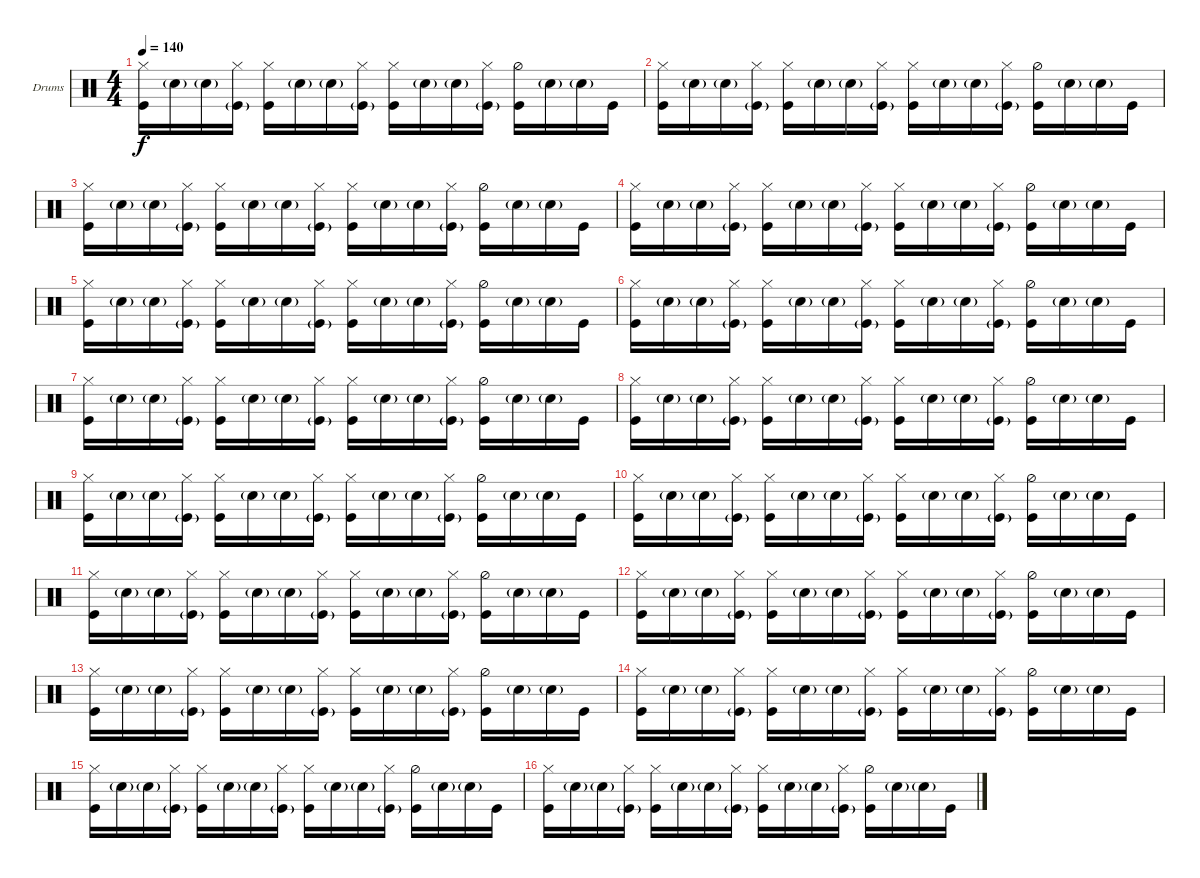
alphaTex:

\defaultSystemsLayout 4
\bracketExtendMode nobrackets
\firstSystemTrackNameOrientation horizontal
\otherSystemsTrackNameOrientation horizontal
\track ("Nazar" "Drums") {instrument percussion}
\staff {score}
\articulation defaults
\ts (4 4)
\tempo 140
\clef neutral
\scale
0.333333
\ks c
("Hi-Hat (closed)" "Kick (hit)").16{dy f} "Snare (hit) 2"{g}.16 "Snare (hit) 2"{g}.16 ("Kick (hit)"{g} "Hi-Hat (closed)").16 ("Kick (hit)" "Hi-Hat (closed)").16 "Snare (hit) 2"{g}.16 "Snare (hit) 2"{g}.16 ("Kick (hit)"{g} "Hi-Hat (closed)").16 ("Kick (hit)" "Hi-Hat (closed)").16 "Snare (hit) 2"{g}.16 "Snare (hit) 2"{g}.16 ("Kick (hit)"{g} "Hi-Hat (closed)").16 ("Kick (hit)" "Hi-Hat (half)").16 "Snare (hit) 2"{g}.16 "Snare (hit) 2"{g}.16 "Kick (hit)".16 |
\scale
0.333333 ("Hi-Hat (closed)" "Kick (hit)").16 "Snare (hit) 2"{g}.16 "Snare (hit) 2"{g}.16 ("Kick (hit)"{g} "Hi-Hat (closed)").16 ("Kick (hit)" "Hi-Hat (closed)").16 "Snare (hit) 2"{g}.16 "Snare (hit) 2"{g}.16 ("Kick (hit)"{g} "Hi-Hat (closed)").16 ("Kick (hit)" "Hi-Hat (closed)").16 "Snare (hit) 2"{g}.16 "Snare (hit) 2"{g}.16 ("Kick (hit)"{g} "Hi-Hat (closed)").16 ("Kick (hit)" "Hi-Hat (half)").16 "Snare (hit) 2"{g}.16 "Snare (hit) 2"{g}.16 "Kick (hit)".16 |
\scale
0.333333 ("Hi-Hat (closed)" "Kick (hit)").16 "Snare (hit) 2"{g}.16 "Snare (hit) 2"{g}.16 ("Kick (hit)"{g} "Hi-Hat (closed)").16 ("Kick (hit)" "Hi-Hat (closed)").16 "Snare (hit) 2"{g}.16 "Snare (hit) 2"{g}.16 ("Kick (hit)"{g} "Hi-Hat (closed)").16 ("Kick (hit)" "Hi-Hat (closed)").16 "Snare (hit) 2"{g}.16 "Snare (hit) 2"{g}.16 ("Kick (hit)"{g} "Hi-Hat (closed)").16 ("Kick (hit)" "Hi-Hat (half)").16 "Snare (hit) 2"{g}.16 "Snare (hit) 2"{g}.16 "Kick (hit)".16 |
\scale
0.333333 ("Hi-Hat (closed)" "Kick (hit)").16 "Snare (hit) 2"{g}.16 "Snare (hit) 2"{g}.16 ("Kick (hit)"{g} "Hi-Hat (closed)").16 ("Kick (hit)" "Hi-Hat (closed)").16 "Snare (hit) 2"{g}.16 "Snare (hit) 2"{g}.16 ("Kick (hit)"{g} "Hi-Hat (closed)").16 ("Kick (hit)" "Hi-Hat (closed)").16 "Snare (hit) 2"{g}.16 "Snare (hit) 2"{g}.16 ("Kick (hit)"{g} "Hi-Hat (closed)").16 ("Kick (hit)" "Hi-Hat (half)").16 "Snare (hit) 2"{g}.16 "Snare (hit) 2"{g}.16 "Kick (hit)".16 |
\scale
0.333333 ("Hi-Hat (closed)" "Kick (hit)").16 "Snare (hit) 2"{g}.16 "Snare (hit) 2"{g}.16 ("Kick (hit)"{g} "Hi-Hat (closed)").16 ("Kick (hit)" "Hi-Hat (closed)").16 "Snare (hit) 2"{g}.16 "Snare (hit) 2"{g}.16 ("Kick (hit)"{g} "Hi-Hat (closed)").16 ("Kick (hit)" "Hi-Hat (closed)").16 "Snare (hit) 2"{g}.16 "Snare (hit) 2"{g}.16 ("Kick (hit)"{g} "Hi-Hat (closed)").16 ("Kick (hit)" "Hi-Hat (half)").16 "Snare (hit) 2"{g}.16 "Snare (hit) 2"{g}.16 "Kick (hit)".16 |
\scale
0.333333 ("Hi-Hat (closed)" "Kick (hit)").16 "Snare (hit) 2"{g}.16 "Snare (hit) 2"{g}.16 ("Kick (hit)"{g} "Hi-Hat (closed)").16 ("Kick (hit)" "Hi-Hat (closed)").16 "Snare (hit) 2"{g}.16 "Snare (hit) 2"{g}.16 ("Kick (hit)"{g} "Hi-Hat (closed)").16 ("Kick (hit)" "Hi-Hat (closed)").16 "Snare (hit) 2"{g}.16 "Snare (hit) 2"{g}.16 ("Kick (hit)"{g} "Hi-Hat (closed)").16 ("Kick (hit)" "Hi-Hat (half)").16 "Snare (hit) 2"{g}.16 "Snare (hit) 2"{g}.16 "Kick (hit)".16 |
\scale
0.333333 ("Hi-Hat (closed)" "Kick (hit)").16 "Snare (hit) 2"{g}.16 "Snare (hit) 2"{g}.16 ("Kick (hit)"{g} "Hi-Hat (closed)").16 ("Kick (hit)" "Hi-Hat (closed)").16 "Snare (hit) 2"{g}.16 "Snare (hit) 2"{g}.16 ("Kick (hit)"{g} "Hi-Hat (closed)").16 ("Kick (hit)" "Hi-Hat (closed)").16 "Snare (hit) 2"{g}.16 "Snare (hit) 2"{g}.16 ("Kick (hit)"{g} "Hi-Hat (closed)").16 ("Kick (hit)" "Hi-Hat (half)").16 "Snare (hit) 2"{g}.16 "Snare (hit) 2"{g}.16 "Kick (hit)".16 |
\scale
0.333333 ("Hi-Hat (closed)" "Kick (hit)").16 "Snare (hit) 2"{g}.16 "Snare (hit) 2"{g}.16 ("Kick (hit)"{g} "Hi-Hat (closed)").16 ("Kick (hit)" "Hi-Hat (closed)").16 "Snare (hit) 2"{g}.16 "Snare (hit) 2"{g}.16 ("Kick (hit)"{g} "Hi-Hat (closed)").16 ("Kick (hit)" "Hi-Hat (closed)").16 "Snare (hit) 2"{g}.16 "Snare (hit) 2"{g}.16 ("Kick (hit)"{g} "Hi-Hat (closed)").16 ("Kick (hit)" "Hi-Hat (half)").16 "Snare (hit) 2"{g}.16 "Snare (hit) 2"{g}.16 "Kick (hit)".16 |
\scale
0.333333 ("Hi-Hat (closed)" "Kick (hit)").16 "Snare (hit) 2"{g}.16 "Snare (hit) 2"{g}.16 ("Kick (hit)"{g} "Hi-Hat (closed)").16 ("Kick (hit)" "Hi-Hat (closed)").16 "Snare (hit) 2"{g}.16 "Snare (hit) 2"{g}.16 ("Kick (hit)"{g} "Hi-Hat (closed)").16 ("Kick (hit)" "Hi-Hat (closed)").16 "Snare (hit) 2"{g}.16 "Snare (hit) 2"{g}.16 ("Kick (hit)"{g} "Hi-Hat (closed)").16 ("Kick (hit)" "Hi-Hat (half)").16 "Snare (hit) 2"{g}.16 "Snare (hit) 2"{g}.16 "Kick (hit)".16 |
\scale
0.333333 ("Hi-Hat (closed)" "Kick (hit)").16 "Snare (hit) 2"{g}.16 "Snare (hit) 2"{g}.16 ("Kick (hit)"{g} "Hi-Hat (closed)").16 ("Kick (hit)" "Hi-Hat (closed)").16 "Snare (hit) 2"{g}.16 "Snare (hit) 2"{g}.16 ("Kick (hit)"{g} "Hi-Hat (closed)").16 ("Kick (hit)" "Hi-Hat (closed)").16 "Snare (hit) 2"{g}.16 "Snare (hit) 2"{g}.16 ("Kick (hit)"{g} "Hi-Hat (closed)").16 ("Kick (hit)" "Hi-Hat (half)").16 "Snare (hit) 2"{g}.16 "Snare (hit) 2"{g}.16 "Kick (hit)".16 |
\scale
0.333333 ("Hi-Hat (closed)" "Kick (hit)").16 "Snare (hit) 2"{g}.16 "Snare (hit) 2"{g}.16 ("Kick (hit)"{g} "Hi-Hat (closed)").16 ("Kick (hit)" "Hi-Hat (closed)").16 "Snare (hit) 2"{g}.16 "Snare (hit) 2"{g}.16 ("Kick (hit)"{g} "Hi-Hat (closed)").16 ("Kick (hit)" "Hi-Hat (closed)").16 "Snare (hit) 2"{g}.16 "Snare (hit) 2"{g}.16 ("Kick (hit)"{g} "Hi-Hat (closed)").16 ("Kick (hit)" "Hi-Hat (half)").16 "Snare (hit) 2"{g}.16 "Snare (hit) 2"{g}.16 "Kick (hit)".16 |
\scale
0.333333 ("Hi-Hat (closed)" "Kick (hit)").16 "Snare (hit) 2"{g}.16 "Snare (hit) 2"{g}.16 ("Kick (hit)"{g} "Hi-Hat (closed)").16 ("Kick (hit)" "Hi-Hat (closed)").16 "Snare (hit) 2"{g}.16 "Snare (hit) 2"{g}.16 ("Kick (hit)"{g} "Hi-Hat (closed)").16 ("Kick (hit)" "Hi-Hat (closed)").16 "Snare (hit) 2"{g}.16 "Snare (hit) 2"{g}.16 ("Kick (hit)"{g} "Hi-Hat (closed)").16 ("Kick (hit)" "Hi-Hat (half)").16 "Snare (hit) 2"{g}.16 "Snare (hit) 2"{g}.16 "Kick (hit)".16 |
\scale
0.333333 ("Hi-Hat (closed)" "Kick (hit)").16 "Snare (hit) 2"{g}.16 "Snare (hit) 2"{g}.16 ("Kick (hit)"{g} "Hi-Hat (closed)").16 ("Kick (hit)" "Hi-Hat (closed)").16 "Snare (hit) 2"{g}.16 "Snare (hit) 2"{g}.16 ("Kick (hit)"{g} "Hi-Hat (closed)").16 ("Kick (hit)" "Hi-Hat (closed)").16 "Snare (hit) 2"{g}.16 "Snare (hit) 2"{g}.16 ("Kick (hit)"{g} "Hi-Hat (closed)").16 ("Kick (hit)" "Hi-Hat (half)").16 "Snare (hit) 2"{g}.16 "Snare (hit) 2"{g}.16 "Kick (hit)".16 |
("Hi-Hat (closed)" "Kick (hit)").16 "Snare (hit) 2"{g}.16 "Snare (hit) 2"{g}.16 ("Kick (hit)"{g} "Hi-Hat (closed)").16 ("Kick (hit)" "Hi-Hat (closed)").16 "Snare (hit) 2"{g}.16 "Snare (hit) 2"{g}.16 ("Kick (hit)"{g} "Hi-Hat (closed)").16 ("Kick (hit)" "Hi-Hat (closed)").16 "Snare (hit) 2"{g}.16 "Snare (hit) 2"{g}.16 ("Kick (hit)"{g} "Hi-Hat (closed)").16 ("Kick (hit)" "Hi-Hat (half)").16 "Snare (hit) 2"{g}.16 "Snare (hit) 2"{g}.16 "Kick (hit)".16 |
("Hi-Hat (closed)" "Kick (hit)").16 "Snare (hit) 2"{g}.16 "Snare (hit) 2"{g}.16 ("Kick (hit)"{g} "Hi-Hat (closed)").16 ("Kick (hit)" "Hi-Hat (closed)").16 "Snare (hit) 2"{g}.16 "Snare (hit) 2"{g}.16 ("Kick (hit)"{g} "Hi-Hat (closed)").16 ("Kick (hit)" "Hi-Hat (closed)").16 "Snare (hit) 2"{g}.16 "Snare (hit) 2"{g}.16 ("Kick (hit)"{g} "Hi-Hat (closed)").16 ("Kick (hit)" "Hi-Hat (half)").16 "Snare (hit) 2"{g}.16 "Snare (hit) 2"{g}.16 "Kick (hit)".16 |
("Hi-Hat (closed)" "Kick (hit)").16 "Snare (hit) 2"{g}.16 "Snare (hit) 2"{g}.16 ("Kick (hit)"{g} "Hi-Hat (closed)").16 ("Kick (hit)" "Hi-Hat (closed)").16 "Snare (hit) 2"{g}.16 "Snare (hit) 2"{g}.16 ("Kick (hit)"{g} "Hi-Hat (closed)").16 ("Kick (hit)" "Hi-Hat (closed)").16 "Snare (hit) 2"{g}.16 "Snare (hit) 2"{g}.16 ("Kick (hit)"{g} "Hi-Hat (closed)").16 ("Kick (hit)" "Hi-Hat (half)").16 "Snare (hit) 2"{g}.16 "Snare (hit) 2"{g}.16 "Kick (hit)".16
